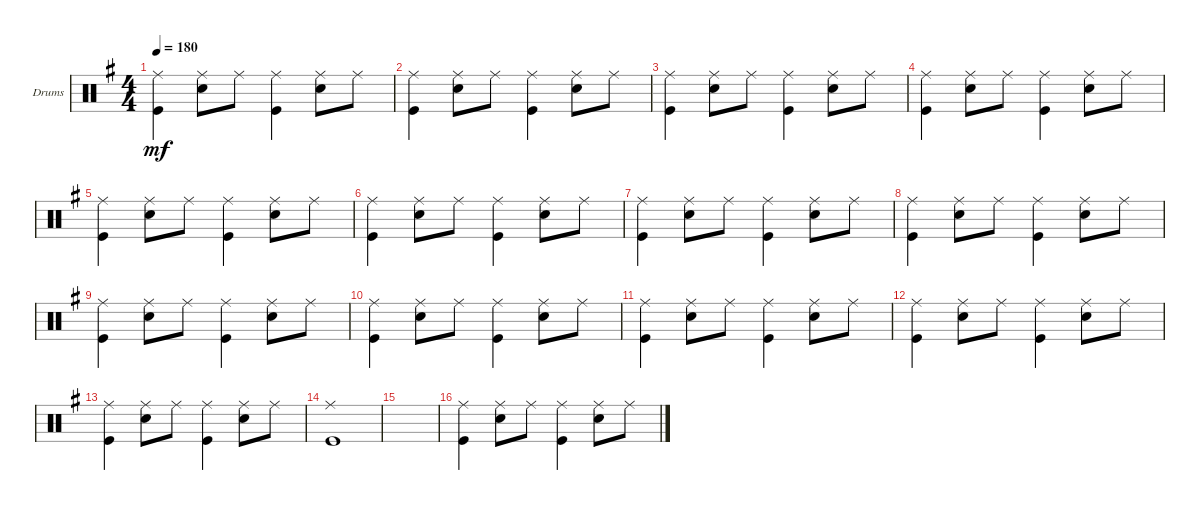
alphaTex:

\defaultSystemsLayout 4
\bracketExtendMode groupsimilarinstruments
\firstSystemTrackNameOrientation horizontal
\otherSystemsTrackNameOrientation horizontal
\track ("Drums Ringo" "Drums") {instrument percussion}
\staff {score}
\articulation defaults
\ts (4 4)
\tempo 180
\clef neutral
\ks g
("Ride (middle)" "Kick (hit)").4{dy mf} ("Snare (hit) 2" "Ride (middle)").8 "Ride (middle)".8 ("Ride (middle)" "Kick (hit)").4 ("Snare (hit) 2" "Ride (middle)").8 "Ride (middle)".8 |
("Ride (middle)" "Kick (hit)").4 ("Snare (hit) 2" "Ride (middle)").8 "Ride (middle)".8 ("Ride (middle)" "Kick (hit)").4 ("Snare (hit) 2" "Ride (middle)").8 "Ride (middle)".8 |
("Ride (middle)" "Kick (hit)").4 ("Snare (hit) 2" "Ride (middle)").8 "Ride (middle)".8 ("Ride (middle)" "Kick (hit)").4 ("Snare (hit) 2" "Ride (middle)").8 "Ride (middle)".8 |
("Ride (middle)" "Kick (hit)").4 ("Snare (hit) 2" "Ride (middle)").8 "Ride (middle)".8 ("Ride (middle)" "Kick (hit)").4 ("Snare (hit) 2" "Ride (middle)").8 "Ride (middle)".8 |
("Ride (middle)" "Kick (hit)").4 ("Snare (hit) 2" "Ride (middle)").8 "Ride (middle)".8 ("Ride (middle)" "Kick (hit)").4 ("Snare (hit) 2" "Ride (middle)").8 "Ride (middle)".8 |
("Ride (middle)" "Kick (hit)").4 ("Snare (hit) 2" "Ride (middle)").8 "Ride (middle)".8 ("Ride (middle)" "Kick (hit)").4 ("Snare (hit) 2" "Ride (middle)").8 "Ride (middle)".8 |
("Ride (middle)" "Kick (hit)").4 ("Snare (hit) 2" "Ride (middle)").8 "Ride (middle)".8 ("Ride (middle)" "Kick (hit)").4 ("Snare (hit) 2" "Ride (middle)").8 "Ride (middle)".8 |
("Ride (middle)" "Kick (hit)").4 ("Snare (hit) 2" "Ride (middle)").8 "Ride (middle)".8 ("Ride (middle)" "Kick (hit)").4 ("Snare (hit) 2" "Ride (middle)").8 "Ride (middle)".8 |
("Ride (middle)" "Kick (hit)").4 ("Snare (hit) 2" "Ride (middle)").8 "Ride (middle)".8 ("Ride (middle)" "Kick (hit)").4 ("Snare (hit) 2" "Ride (middle)").8 "Ride (middle)".8 |
("Ride (middle)" "Kick (hit)").4 ("Snare (hit) 2" "Ride (middle)").8 "Ride (middle)".8 ("Ride (middle)" "Kick (hit)").4 ("Snare (hit) 2" "Ride (middle)").8 "Ride (middle)".8 |
("Ride (middle)" "Kick (hit)").4 ("Snare (hit) 2" "Ride (middle)").8 "Ride (middle)".8 ("Ride (middle)" "Kick (hit)").4 ("Snare (hit) 2" "Ride (middle)").8 "Ride (middle)".8 |
("Ride (middle)" "Kick (hit)").4 ("Snare (hit) 2" "Ride (middle)").8 "Ride (middle)".8 ("Ride (middle)" "Kick (hit)").4 ("Snare (hit) 2" "Ride (middle)").8 "Ride (middle)".8 |
("Ride (middle)" "Kick (hit)").4 ("Snare (hit) 2" "Ride (middle)").8 "Ride (middle)".8 ("Ride (middle)" "Kick (hit)").4 ("Snare (hit) 2" "Ride (middle)").8 "Ride (middle)".8 |
("Ride (middle)" "Kick (hit)").1 |
|
("Ride (middle)" "Kick (hit)").4 ("Snare (hit) 2" "Ride (middle)").8 "Ride (middle)".8 ("Ride (middle)" "Kick (hit)").4 ("Snare (hit) 2" "Ride (middle)").8 "Ride (middle)".8
